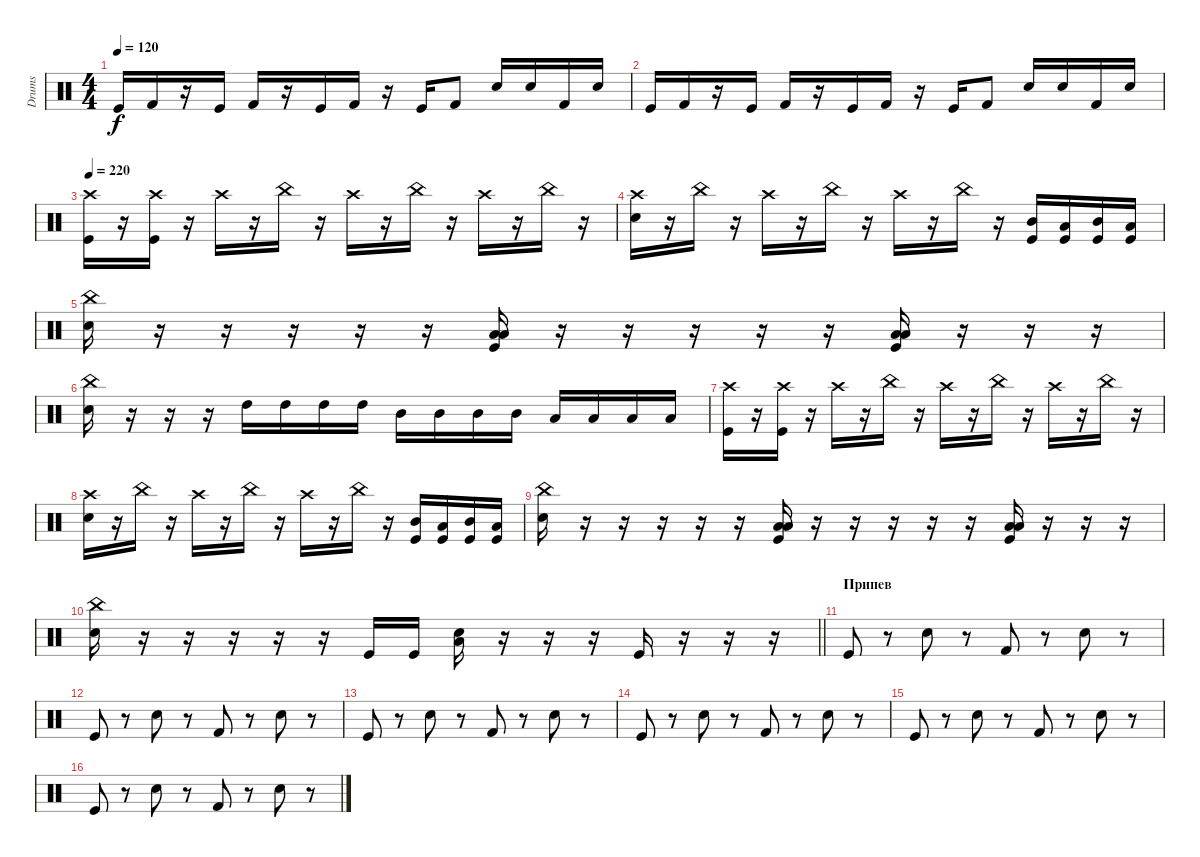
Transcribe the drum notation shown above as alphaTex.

\track ("Drums" "Drums") {instrument percussion}
\staff {score}
\articulation defaults
\ts (4 4)
\tempo 120
\clef neutral
\ks c "Kick (hit)".16{dy f} "Kick (hit) 2".16
r.16 "Kick (hit)".16 "Kick (hit) 2".16 r.16 "Kick (hit)".16 "Kick (hit) 2".16 r.16 "Kick (hit)".16 "Kick (hit) 2".8 "Electric Snare (hit)".16 "Snare (hit) 2".16 "Kick (hit) 2".16 "Electric Snare (hit)".16 |
"Kick (hit)".16 "Kick (hit) 2".16 r.16 "Kick (hit)".16 "Kick (hit) 2".16 r.16 "Kick (hit)".16 "Kick (hit) 2".16 r.16 "Kick (hit)".16 "Kick (hit) 2".8 "Electric Snare (hit)".16 "Snare (hit) 2".16 "Kick (hit) 2".16 "Electric Snare (hit)".16 |
\tempo 220
("Crash high (hit)" "Kick (hit)").16 r.16 ("Crash high (hit)" "Kick (hit)").16 r.16 "Crash high (hit)".16 r.16 "China (hit)".16 r.16 "Crash high (hit)".16 r.16 "China (hit)".16 r.16 "Crash high (hit)".16 r.16 "China (hit)".16 r.16 |
("Crash high (hit)" "Electric Snare (hit)").16 r.16 "China (hit)".16 r.16 "Crash high (hit)".16 r.16 "China (hit)".16 r.16 "Crash high (hit)".16 r.16 "China (hit)".16 r.16 ("Kick (hit)" "Mid Tom (hit)").16 ("Kick (hit)" "Low Tom (hit)").16 ("Kick (hit)" "Mid Tom (hit)").16 ("Kick (hit)" "Low Tom (hit)").16 |
("China (hit)" "Electric Snare (hit)").16 r.16 r.16 r.16 r.16 r.16 ("Low Floor Tom (hit)" "Kick (hit)" "Low Tom (hit)").16 r.16 r.16 r.16 r.16 r.16 ("Low Floor Tom (hit)" "Kick (hit)" "Low Tom (hit)").16 r.16 r.16 r.16 |
("China (hit)" "Electric Snare (hit)").16 r.16 r.16 r.16 "High Tom (hit)".16 "High Tom (hit)".16 "High Tom (hit)".16 "High Tom (hit)".16 "Mid Tom (hit)".16 "Mid Tom (hit)".16 "Mid Tom (hit)".16 "Mid Tom (hit)".16 "Low Floor Tom (hit)".16 "Low Floor Tom (hit)".16 "Low Floor Tom (hit)".16 "Low Floor Tom (hit)".16 |
("Crash high (hit)" "Kick (hit)").16 r.16 ("Crash high (hit)" "Kick (hit)").16 r.16 "Crash high (hit)".16 r.16 "China (hit)".16 r.16 "Crash high (hit)".16 r.16 "China (hit)".16 r.16 "Crash high (hit)".16 r.16 "China (hit)".16 r.16 |
("Crash high (hit)" "Electric Snare (hit)").16 r.16 "China (hit)".16 r.16 "Crash high (hit)".16 r.16 "China (hit)".16 r.16 "Crash high (hit)".16 r.16 "China (hit)".16 r.16 ("Kick (hit)" "Mid Tom (hit)").16 ("Kick (hit)" "Low Tom (hit)").16 ("Kick (hit)" "Mid Tom (hit)").16 ("Kick (hit)" "Low Tom (hit)").16 |
("China (hit)" "Electric Snare (hit)").16 r.16 r.16 r.16 r.16 r.16 ("Low Floor Tom (hit)" "Kick (hit)" "Low Tom (hit)").16 r.16 r.16 r.16 r.16 r.16 ("Low Floor Tom (hit)" "Kick (hit)" "Low Tom (hit)").16 r.16 r.16 r.16 |
\barLineRight lightlight
("China (hit)" "Electric Snare (hit)").16 r.16 r.16 r.16 r.16 r.16 "Kick (hit)".16 "Kick (hit)".16 ("Low Floor Tom (hit)" "Electric Snare (hit)").16 r.16 r.16 r.16 "Kick (hit)".16 r.16 r.16 r.16 |
\section ("" "Припев")
"Kick (hit)".8 r.8 "Electric Snare (hit)".8 r.8 "Kick (hit) 2".8 r.8 "Electric Snare (hit)".8 r.8 |
"Kick (hit)".8 r.8 "Electric Snare (hit)".8 r.8 "Kick (hit) 2".8 r.8 "Electric Snare (hit)".8 r.8 |
"Kick (hit)".8 r.8 "Electric Snare (hit)".8 r.8 "Kick (hit) 2".8 r.8 "Electric Snare (hit)".8 r.8 |
"Kick (hit)".8 r.8 "Electric Snare (hit)".8 r.8 "Kick (hit) 2".8 r.8 "Electric Snare (hit)".8 r.8 |
"Kick (hit)".8 r.8 "Electric Snare (hit)".8 r.8 "Kick (hit) 2".8 r.8 "Electric Snare (hit)".8 r.8 |
"Kick (hit)".8 r.8 "Electric Snare (hit)".8 r.8 "Kick (hit) 2".8 r.8 "Electric Snare (hit)".8 r.8
